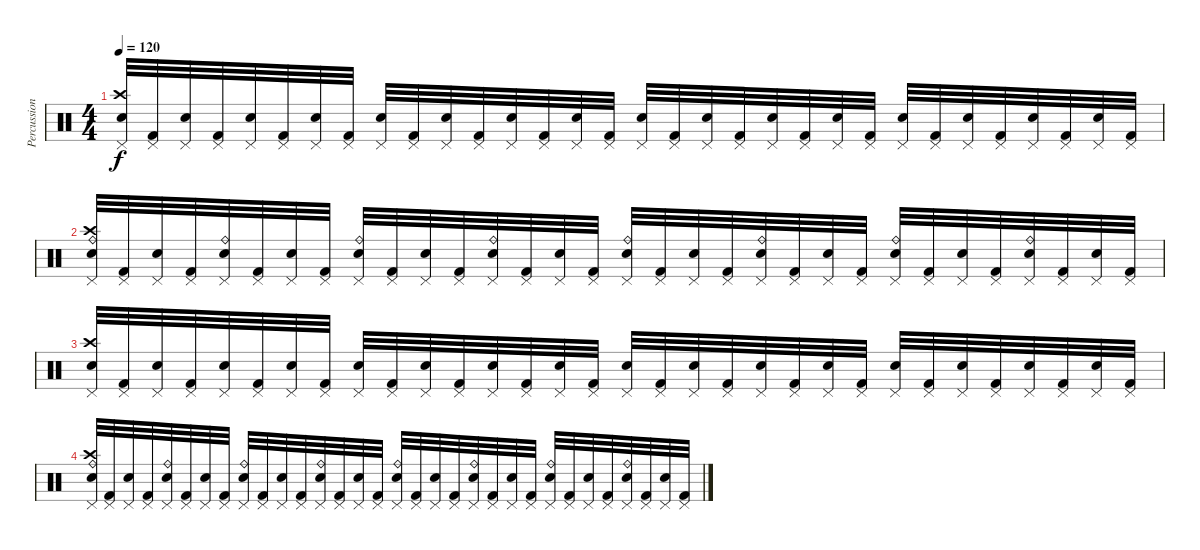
\track ("Percussions" "Percussion") {instrument percussion}
\staff {score}
\articulation defaults
\ts (4 4)
\tempo 120
\clef neutral
\ks c
("Pedal Hi-Hat (hit)" "Crash high (hit)" "Electric Snare (hit)").32{dy f volume 5} ("Pedal Hi-Hat (hit)" "Kick (hit) 2").32 ("Pedal Hi-Hat (hit)" "Electric Snare (hit)").32 ("Pedal Hi-Hat (hit)" "Kick (hit) 2").32 ("Pedal Hi-Hat (hit)" "Electric Snare (hit)").32 ("Pedal Hi-Hat (hit)" "Kick (hit) 2").32 ("Pedal Hi-Hat (hit)" "Electric Snare (hit)").32 ("Pedal Hi-Hat (hit)" "Kick (hit) 2").32 ("Pedal Hi-Hat (hit)" "Electric Snare (hit)").32 ("Pedal Hi-Hat (hit)" "Kick (hit) 2").32 ("Pedal Hi-Hat (hit)" "Electric Snare (hit)").32 ("Pedal Hi-Hat (hit)" "Kick (hit) 2").32 ("Pedal Hi-Hat (hit)" "Electric Snare (hit)").32 ("Pedal Hi-Hat (hit)" "Kick (hit) 2").32 ("Pedal Hi-Hat (hit)" "Electric Snare (hit)").32 ("Pedal Hi-Hat (hit)" "Kick (hit) 2").32 ("Pedal Hi-Hat (hit)" "Electric Snare (hit)").32 ("Pedal Hi-Hat (hit)" "Kick (hit) 2").32 ("Pedal Hi-Hat (hit)" "Electric Snare (hit)").32 ("Pedal Hi-Hat (hit)" "Kick (hit) 2").32 ("Pedal Hi-Hat (hit)" "Electric Snare (hit)").32 ("Pedal Hi-Hat (hit)" "Kick (hit) 2").32 ("Pedal Hi-Hat (hit)" "Electric Snare (hit)").32 ("Pedal Hi-Hat (hit)" "Kick (hit) 2").32 ("Pedal Hi-Hat (hit)" "Electric Snare (hit)").32 ("Pedal Hi-Hat (hit)" "Kick (hit) 2").32 ("Pedal Hi-Hat (hit)" "Electric Snare (hit)").32 ("Pedal Hi-Hat (hit)" "Kick (hit) 2").32 ("Pedal Hi-Hat (hit)" "Electric Snare (hit)").32 ("Pedal Hi-Hat (hit)" "Kick (hit) 2").32 ("Pedal Hi-Hat (hit)" "Electric Snare (hit)").32 ("Pedal Hi-Hat (hit)" "Kick (hit) 2").32 |
("Ride (bell)" "Pedal Hi-Hat (hit)" "Crash high (hit)" "Electric Snare (hit)").32 ("Pedal Hi-Hat (hit)" "Kick (hit) 2").32 ("Pedal Hi-Hat (hit)" "Electric Snare (hit)").32 ("Pedal Hi-Hat (hit)" "Kick (hit) 2").32 ("Ride (bell)" "Pedal Hi-Hat (hit)" "Electric Snare (hit)").32 ("Pedal Hi-Hat (hit)" "Kick (hit) 2").32 ("Pedal Hi-Hat (hit)" "Electric Snare (hit)").32 ("Pedal Hi-Hat (hit)" "Kick (hit) 2").32 ("Ride (bell)" "Pedal Hi-Hat (hit)" "Electric Snare (hit)").32 ("Pedal Hi-Hat (hit)" "Kick (hit) 2").32 ("Pedal Hi-Hat (hit)" "Electric Snare (hit)").32 ("Pedal Hi-Hat (hit)" "Kick (hit) 2").32 ("Ride (bell)" "Pedal Hi-Hat (hit)" "Electric Snare (hit)").32 ("Pedal Hi-Hat (hit)" "Kick (hit) 2").32 ("Pedal Hi-Hat (hit)" "Electric Snare (hit)").32 ("Pedal Hi-Hat (hit)" "Kick (hit) 2").32 ("Ride (bell)" "Pedal Hi-Hat (hit)" "Electric Snare (hit)").32 ("Pedal Hi-Hat (hit)" "Kick (hit) 2").32 ("Pedal Hi-Hat (hit)" "Electric Snare (hit)").32 ("Pedal Hi-Hat (hit)" "Kick (hit) 2").32 ("Ride (bell)" "Pedal Hi-Hat (hit)" "Electric Snare (hit)").32 ("Pedal Hi-Hat (hit)" "Kick (hit) 2").32 ("Pedal Hi-Hat (hit)" "Electric Snare (hit)").32 ("Pedal Hi-Hat (hit)" "Kick (hit) 2").32 ("Ride (bell)" "Pedal Hi-Hat (hit)" "Electric Snare (hit)").32 ("Pedal Hi-Hat (hit)" "Kick (hit) 2").32 ("Pedal Hi-Hat (hit)" "Electric Snare (hit)").32 ("Pedal Hi-Hat (hit)" "Kick (hit) 2").32 ("Ride (bell)" "Pedal Hi-Hat (hit)" "Electric Snare (hit)").32 ("Pedal Hi-Hat (hit)" "Kick (hit) 2").32 ("Pedal Hi-Hat (hit)" "Electric Snare (hit)").32 ("Pedal Hi-Hat (hit)" "Kick (hit) 2").32 |
("Pedal Hi-Hat (hit)" "Crash high (hit)" "Electric Snare (hit)").32 ("Pedal Hi-Hat (hit)" "Kick (hit) 2").32 ("Pedal Hi-Hat (hit)" "Electric Snare (hit)").32 ("Pedal Hi-Hat (hit)" "Kick (hit) 2").32 ("Pedal Hi-Hat (hit)" "Electric Snare (hit)").32 ("Pedal Hi-Hat (hit)" "Kick (hit) 2").32 ("Pedal Hi-Hat (hit)" "Electric Snare (hit)").32 ("Pedal Hi-Hat (hit)" "Kick (hit) 2").32 ("Pedal Hi-Hat (hit)" "Electric Snare (hit)").32 ("Pedal Hi-Hat (hit)" "Kick (hit) 2").32 ("Pedal Hi-Hat (hit)" "Electric Snare (hit)").32 ("Pedal Hi-Hat (hit)" "Kick (hit) 2").32 ("Pedal Hi-Hat (hit)" "Electric Snare (hit)").32 ("Pedal Hi-Hat (hit)" "Kick (hit) 2").32 ("Pedal Hi-Hat (hit)" "Electric Snare (hit)").32 ("Pedal Hi-Hat (hit)" "Kick (hit) 2").32 ("Pedal Hi-Hat (hit)" "Electric Snare (hit)").32 ("Pedal Hi-Hat (hit)" "Kick (hit) 2").32 ("Pedal Hi-Hat (hit)" "Electric Snare (hit)").32 ("Pedal Hi-Hat (hit)" "Kick (hit) 2").32 ("Pedal Hi-Hat (hit)" "Electric Snare (hit)").32 ("Pedal Hi-Hat (hit)" "Kick (hit) 2").32 ("Pedal Hi-Hat (hit)" "Electric Snare (hit)").32 ("Pedal Hi-Hat (hit)" "Kick (hit) 2").32 ("Pedal Hi-Hat (hit)" "Electric Snare (hit)").32 ("Pedal Hi-Hat (hit)" "Kick (hit) 2").32 ("Pedal Hi-Hat (hit)" "Electric Snare (hit)").32 ("Pedal Hi-Hat (hit)" "Kick (hit) 2").32 ("Pedal Hi-Hat (hit)" "Electric Snare (hit)").32 ("Pedal Hi-Hat (hit)" "Kick (hit) 2").32 ("Pedal Hi-Hat (hit)" "Electric Snare (hit)").32 ("Pedal Hi-Hat (hit)" "Kick (hit) 2").32 |
("Ride (bell)" "Pedal Hi-Hat (hit)" "Crash high (hit)" "Electric Snare (hit)").32 ("Pedal Hi-Hat (hit)" "Kick (hit) 2").32 ("Pedal Hi-Hat (hit)" "Electric Snare (hit)").32 ("Pedal Hi-Hat (hit)" "Kick (hit) 2").32 ("Ride (bell)" "Pedal Hi-Hat (hit)" "Electric Snare (hit)").32 ("Pedal Hi-Hat (hit)" "Kick (hit) 2").32 ("Pedal Hi-Hat (hit)" "Electric Snare (hit)").32 ("Pedal Hi-Hat (hit)" "Kick (hit) 2").32 ("Ride (bell)" "Pedal Hi-Hat (hit)" "Electric Snare (hit)").32 ("Pedal Hi-Hat (hit)" "Kick (hit) 2").32 ("Pedal Hi-Hat (hit)" "Electric Snare (hit)").32 ("Pedal Hi-Hat (hit)" "Kick (hit) 2").32 ("Ride (bell)" "Pedal Hi-Hat (hit)" "Electric Snare (hit)").32 ("Pedal Hi-Hat (hit)" "Kick (hit) 2").32 ("Pedal Hi-Hat (hit)" "Electric Snare (hit)").32 ("Pedal Hi-Hat (hit)" "Kick (hit) 2").32 ("Ride (bell)" "Pedal Hi-Hat (hit)" "Electric Snare (hit)").32 ("Pedal Hi-Hat (hit)" "Kick (hit) 2").32 ("Pedal Hi-Hat (hit)" "Electric Snare (hit)").32 ("Pedal Hi-Hat (hit)" "Kick (hit) 2").32 ("Ride (bell)" "Pedal Hi-Hat (hit)" "Electric Snare (hit)").32 ("Pedal Hi-Hat (hit)" "Kick (hit) 2").32 ("Pedal Hi-Hat (hit)" "Electric Snare (hit)").32 ("Pedal Hi-Hat (hit)" "Kick (hit) 2").32 ("Ride (bell)" "Pedal Hi-Hat (hit)" "Electric Snare (hit)").32 ("Pedal Hi-Hat (hit)" "Kick (hit) 2").32 ("Pedal Hi-Hat (hit)" "Electric Snare (hit)").32 ("Pedal Hi-Hat (hit)" "Kick (hit) 2").32 ("Ride (bell)" "Pedal Hi-Hat (hit)" "Electric Snare (hit)").32 ("Pedal Hi-Hat (hit)" "Kick (hit) 2").32 ("Pedal Hi-Hat (hit)" "Electric Snare (hit)").32 ("Pedal Hi-Hat (hit)" "Kick (hit) 2").32
